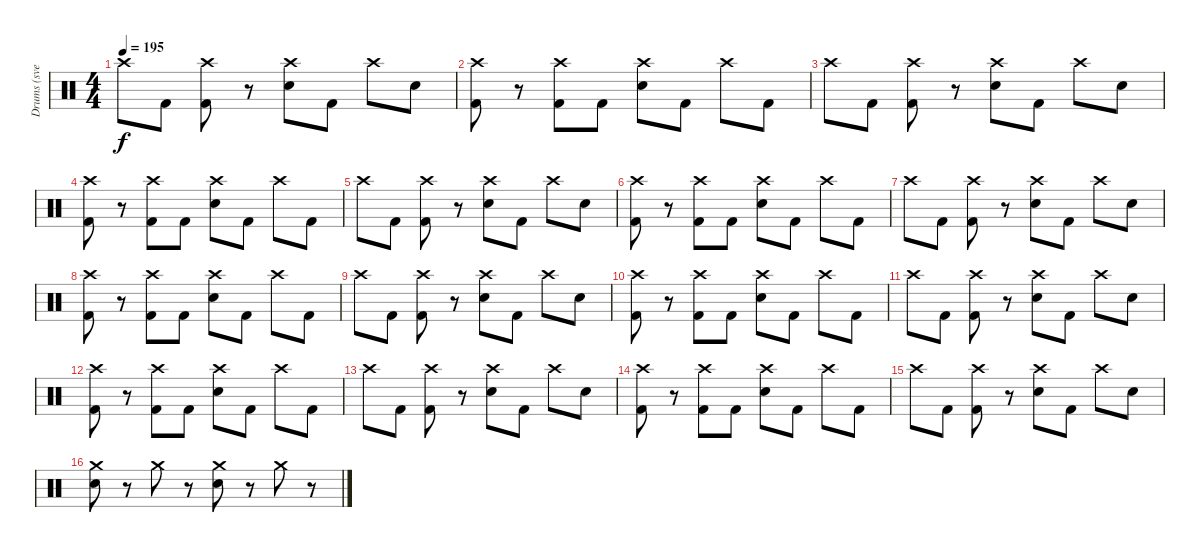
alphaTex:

\track ("Drums (svelle)" "Drums (sve") {instrument percussion}
\staff {score}
\articulation defaults
\ts (4 4)
\tempo 195
\clef neutral
\ks c "Crash high (hit)".8{dy f} "Kick (hit) 2".8
("Crash high (hit)" "Kick (hit) 2").8 r.8 ("Crash high (hit)" "Electric Snare (hit)").8 "Kick (hit) 2".8 "Crash high (hit)".8 "Electric Snare (hit)".8 |
("Crash high (hit)" "Kick (hit) 2").8 r.8 ("Crash high (hit)" "Kick (hit) 2").8 "Kick (hit) 2".8 ("Crash high (hit)" "Electric Snare (hit)").8 "Kick (hit) 2".8 "Crash high (hit)".8 "Kick (hit) 2".8 |
"Crash high (hit)".8 "Kick (hit) 2".8 ("Crash high (hit)" "Kick (hit) 2").8 r.8 ("Crash high (hit)" "Electric Snare (hit)").8 "Kick (hit) 2".8 "Crash high (hit)".8 "Electric Snare (hit)".8 |
("Crash high (hit)" "Kick (hit) 2").8 r.8 ("Crash high (hit)" "Kick (hit) 2").8 "Kick (hit) 2".8 ("Crash high (hit)" "Electric Snare (hit)").8 "Kick (hit) 2".8 "Crash high (hit)".8 "Kick (hit) 2".8 |
"Crash high (hit)".8 "Kick (hit) 2".8 ("Crash high (hit)" "Kick (hit) 2").8 r.8 ("Crash high (hit)" "Electric Snare (hit)").8 "Kick (hit) 2".8 "Crash high (hit)".8 "Electric Snare (hit)".8 |
("Crash high (hit)" "Kick (hit) 2").8 r.8 ("Crash high (hit)" "Kick (hit) 2").8 "Kick (hit) 2".8 ("Crash high (hit)" "Electric Snare (hit)").8 "Kick (hit) 2".8 "Crash high (hit)".8 "Kick (hit) 2".8 |
"Crash high (hit)".8 "Kick (hit) 2".8 ("Crash high (hit)" "Kick (hit) 2").8 r.8 ("Crash high (hit)" "Electric Snare (hit)").8 "Kick (hit) 2".8 "Crash high (hit)".8 "Electric Snare (hit)".8 |
("Crash high (hit)" "Kick (hit) 2").8 r.8 ("Crash high (hit)" "Kick (hit) 2").8 "Kick (hit) 2".8 ("Crash high (hit)" "Electric Snare (hit)").8 "Kick (hit) 2".8 "Crash high (hit)".8 "Kick (hit) 2".8 |
"Crash high (hit)".8 "Kick (hit) 2".8 ("Crash high (hit)" "Kick (hit) 2").8 r.8 ("Crash high (hit)" "Electric Snare (hit)").8 "Kick (hit) 2".8 "Crash high (hit)".8 "Electric Snare (hit)".8 |
("Crash high (hit)" "Kick (hit) 2").8 r.8 ("Crash high (hit)" "Kick (hit) 2").8 "Kick (hit) 2".8 ("Crash high (hit)" "Electric Snare (hit)").8 "Kick (hit) 2".8 "Crash high (hit)".8 "Kick (hit) 2".8 |
"Crash high (hit)".8 "Kick (hit) 2".8 ("Crash high (hit)" "Kick (hit) 2").8 r.8 ("Crash high (hit)" "Electric Snare (hit)").8 "Kick (hit) 2".8 "Crash high (hit)".8 "Electric Snare (hit)".8 |
("Crash high (hit)" "Kick (hit) 2").8 r.8 ("Crash high (hit)" "Kick (hit) 2").8 "Kick (hit) 2".8 ("Crash high (hit)" "Electric Snare (hit)").8 "Kick (hit) 2".8 "Crash high (hit)".8 "Kick (hit) 2".8 |
"Crash high (hit)".8 "Kick (hit) 2".8 ("Crash high (hit)" "Kick (hit) 2").8 r.8 ("Crash high (hit)" "Electric Snare (hit)").8 "Kick (hit) 2".8 "Crash high (hit)".8 "Electric Snare (hit)".8 |
("Crash high (hit)" "Kick (hit) 2").8 r.8 ("Crash high (hit)" "Kick (hit) 2").8 "Kick (hit) 2".8 ("Crash high (hit)" "Electric Snare (hit)").8 "Kick (hit) 2".8 "Crash high (hit)".8 "Kick (hit) 2".8 |
"Crash high (hit)".8 "Kick (hit) 2".8 ("Crash high (hit)" "Kick (hit) 2").8 r.8 ("Crash high (hit)" "Electric Snare (hit)").8 "Kick (hit) 2".8 "Crash high (hit)".8 "Electric Snare (hit)".8 |
("Crash medium (hit)" "Electric Snare (hit)").8 r.8 "Crash medium (hit)".8 r.8 ("Crash medium (hit)" "Electric Snare (hit)").8 r.8 "Crash medium (hit)".8 r.8
